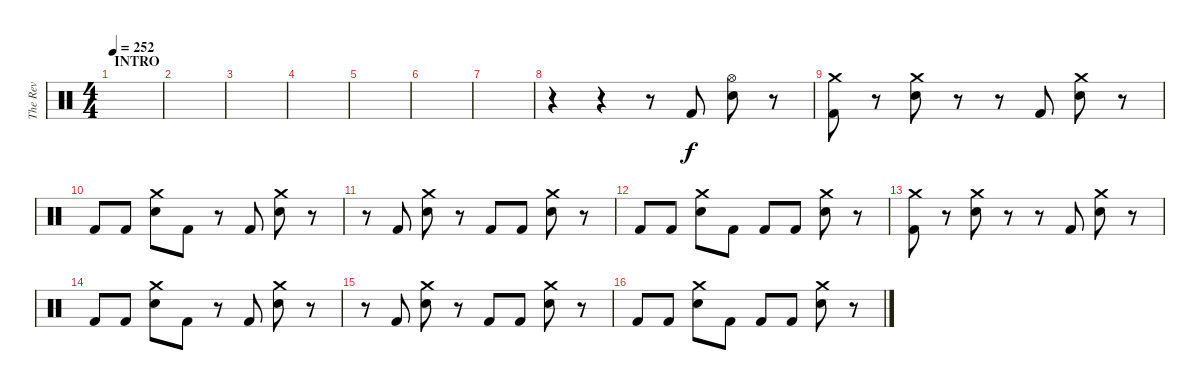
\track ("The Rev" "The Rev") {instrument percussion}
\staff {score}
\articulation defaults
\ts (4 4)
\section ("" "INTRO")
\tempo 252
\clef neutral
\ks c
|
|
|
|
|
|
|
r.4 r.4 r.8 "Kick (hit) 2".8 ("Hi-Hat (open)" "Electric Snare (hit)").8 r.8 |
("Crash medium (hit)" "Kick (hit) 2").8 r.8 ("Crash medium (hit)" "Electric Snare (hit)").8 r.8 r.8 "Kick (hit) 2".8 ("Crash medium (hit)" "Electric Snare (hit)").8 r.8 |
"Kick (hit) 2".8 "Kick (hit) 2".8 ("Crash medium (hit)" "Electric Snare (hit)").8 "Kick (hit) 2".8 r.8 "Kick (hit) 2".8 ("Crash medium (hit)" "Electric Snare (hit)").8 r.8 |
r.8 "Kick (hit) 2".8 ("Crash medium (hit)" "Electric Snare (hit)").8 r.8 "Kick (hit) 2".8 "Kick (hit) 2".8 ("Crash medium (hit)" "Electric Snare (hit)").8 r.8 |
"Kick (hit) 2".8 "Kick (hit) 2".8 ("Crash medium (hit)" "Electric Snare (hit)").8 "Kick (hit) 2".8 "Kick (hit) 2".8 "Kick (hit) 2".8 ("Crash medium (hit)" "Electric Snare (hit)").8 r.8 |
("Crash medium (hit)" "Kick (hit) 2").8 r.8 ("Crash medium (hit)" "Electric Snare (hit)").8 r.8 r.8 "Kick (hit) 2".8 ("Crash medium (hit)" "Electric Snare (hit)").8 r.8 |
"Kick (hit) 2".8 "Kick (hit) 2".8 ("Crash medium (hit)" "Electric Snare (hit)").8 "Kick (hit) 2".8 r.8 "Kick (hit) 2".8 ("Crash medium (hit)" "Electric Snare (hit)").8 r.8 |
r.8 "Kick (hit) 2".8 ("Crash medium (hit)" "Electric Snare (hit)").8 r.8 "Kick (hit) 2".8 "Kick (hit) 2".8 ("Crash medium (hit)" "Electric Snare (hit)").8 r.8 |
"Kick (hit) 2".8 "Kick (hit) 2".8 ("Crash medium (hit)" "Electric Snare (hit)").8 "Kick (hit) 2".8 "Kick (hit) 2".8 "Kick (hit) 2".8 ("Crash medium (hit)" "Electric Snare (hit)").8 r.8
